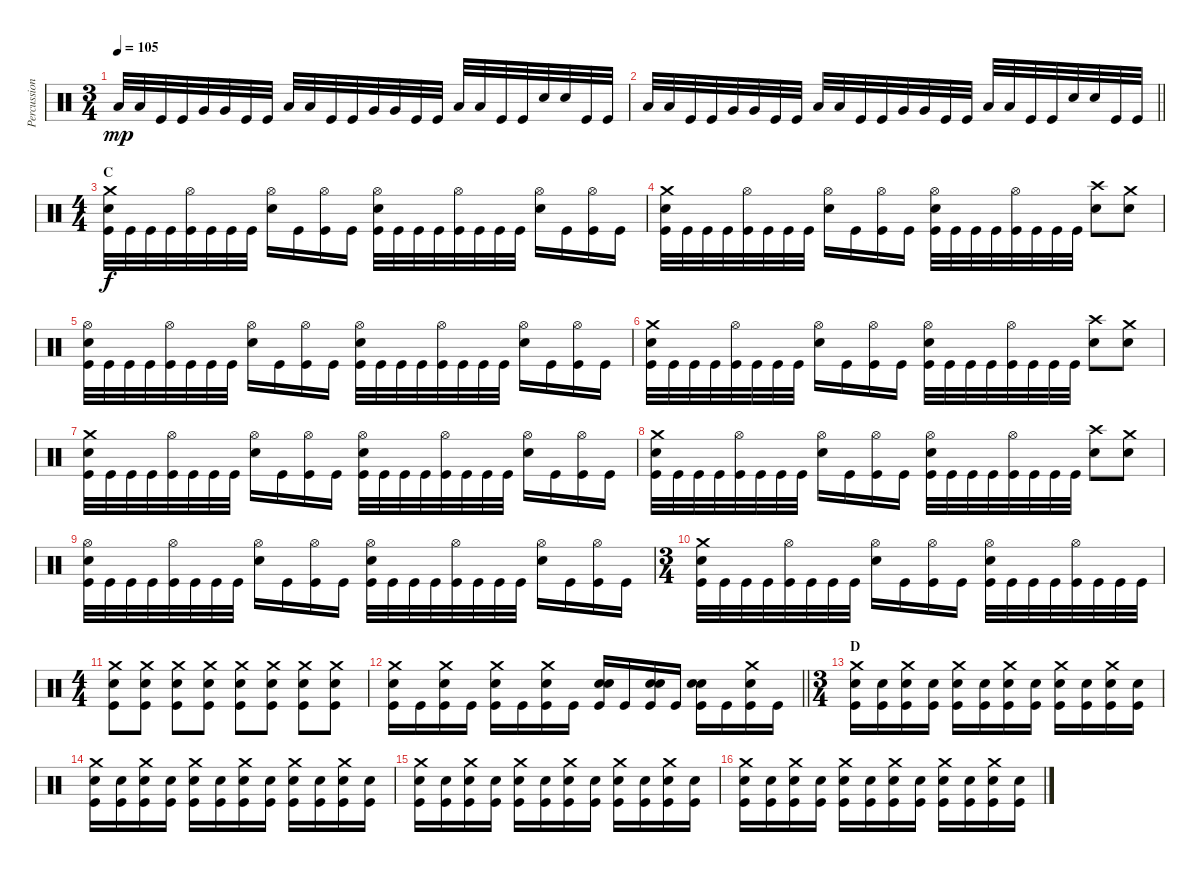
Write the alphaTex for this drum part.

\track ("Percussion" "Percussion") {instrument percussion}
\staff {score}
\articulation defaults
\ts (3 4)
\tempo 105
\clef neutral
\ks c "Low Tom (hit)".32{dy mp} "Low Tom (hit)".32 "Kick (hit)".32 "Kick (hit)".32 "Very Low Tom (hit)".32 "Very Low Tom (hit)".32 "Kick (hit)".32 "Kick (hit)".32 "Low Floor Tom (hit)".32 "Low Floor Tom (hit)".32 "Kick (hit)".32 "Kick (hit)".32 "Very Low Tom (hit)".32 "Very Low Tom (hit)".32 "Kick (hit)".32 "Kick (hit)".32 "Low Tom (hit)".32 "Low Tom (hit)".32 "Kick (hit)".32 "Kick (hit)".32 "Snare (hit) 2".32 "Snare (hit) 2".32 "Kick (hit)".32 "Kick (hit)".32
|
\barLineRight lightlight "Low Tom (hit)".32 "Low Tom (hit)".32 "Kick (hit)".32 "Kick (hit)".32 "Very Low Tom (hit)".32 "Very Low Tom (hit)".32 "Kick (hit)".32 "Kick (hit)".32 "Low Floor Tom (hit)".32 "Low Floor Tom (hit)".32 "Kick (hit)".32 "Kick (hit)".32 "Very Low Tom (hit)".32 "Very Low Tom (hit)".32 "Kick (hit)".32 "Kick (hit)".32 "Low Tom (hit)".32 "Low Tom (hit)".32 "Kick (hit)".32 "Kick (hit)".32 "Snare (hit) 2".32 "Snare (hit) 2".32 "Kick (hit)".32 "Kick (hit)".32
|
\ts (4 4)
\section ("" "C")
("Kick (hit)" "Snare (hit) 2" "Crash medium (hit)").32{dy f} "Kick (hit)".32 "Kick (hit)".32 "Kick (hit)".32 ("Kick (hit)" "Hi-Hat (open)").32 "Kick (hit)".32 "Kick (hit)".32 "Kick (hit)".32 ("Snare (hit) 2" "Hi-Hat (open)").16 "Kick (hit)".16 ("Kick (hit)" "Hi-Hat (open)").16 "Kick (hit)".16 ("Kick (hit)" "Snare (hit) 2" "Hi-Hat (open)").32 "Kick (hit)".32 "Kick (hit)".32 "Kick (hit)".32 ("Kick (hit)" "Hi-Hat (open)").32 "Kick (hit)".32 "Kick (hit)".32 "Kick (hit)".32 ("Snare (hit) 2" "Hi-Hat (open)").16 "Kick (hit)".16 ("Kick (hit)" "Hi-Hat (open)").16 "Kick (hit)".16 |
("Kick (hit)" "Snare (hit) 2" "Crash medium (hit)").32 "Kick (hit)".32 "Kick (hit)".32 "Kick (hit)".32 ("Kick (hit)" "Hi-Hat (open)").32 "Kick (hit)".32 "Kick (hit)".32 "Kick (hit)".32 ("Snare (hit) 2" "Hi-Hat (open)").16 "Kick (hit)".16 ("Kick (hit)" "Hi-Hat (open)").16 "Kick (hit)".16 ("Kick (hit)" "Snare (hit) 2" "Hi-Hat (open)").32 "Kick (hit)".32 "Kick (hit)".32 "Kick (hit)".32 ("Kick (hit)" "Hi-Hat (open)").32 "Kick (hit)".32 "Kick (hit)".32 "Kick (hit)".32 ("Snare (hit) 2" "Crash high (hit)").8 ("Snare (hit) 2" "Crash medium (hit)").8 |
("Kick (hit)" "Snare (hit) 2" "Hi-Hat (open)").32 "Kick (hit)".32 "Kick (hit)".32 "Kick (hit)".32 ("Kick (hit)" "Hi-Hat (open)").32 "Kick (hit)".32 "Kick (hit)".32 "Kick (hit)".32 ("Snare (hit) 2" "Hi-Hat (open)").16 "Kick (hit)".16 ("Kick (hit)" "Hi-Hat (open)").16 "Kick (hit)".16 ("Kick (hit)" "Snare (hit) 2" "Hi-Hat (open)").32 "Kick (hit)".32 "Kick (hit)".32 "Kick (hit)".32 ("Kick (hit)" "Hi-Hat (open)").32 "Kick (hit)".32 "Kick (hit)".32 "Kick (hit)".32 ("Snare (hit) 2" "Hi-Hat (open)").16 "Kick (hit)".16 ("Kick (hit)" "Hi-Hat (open)").16 "Kick (hit)".16 |
("Kick (hit)" "Snare (hit) 2" "Crash medium (hit)").32 "Kick (hit)".32 "Kick (hit)".32 "Kick (hit)".32 ("Kick (hit)" "Hi-Hat (open)").32 "Kick (hit)".32 "Kick (hit)".32 "Kick (hit)".32 ("Snare (hit) 2" "Hi-Hat (open)").16 "Kick (hit)".16 ("Kick (hit)" "Hi-Hat (open)").16 "Kick (hit)".16 ("Kick (hit)" "Snare (hit) 2" "Hi-Hat (open)").32 "Kick (hit)".32 "Kick (hit)".32 "Kick (hit)".32 ("Kick (hit)" "Hi-Hat (open)").32 "Kick (hit)".32 "Kick (hit)".32 "Kick (hit)".32 ("Snare (hit) 2" "Crash high (hit)").8 ("Snare (hit) 2" "Crash medium (hit)").8 |
("Kick (hit)" "Snare (hit) 2" "Crash medium (hit)").32 "Kick (hit)".32 "Kick (hit)".32 "Kick (hit)".32 ("Kick (hit)" "Hi-Hat (open)").32 "Kick (hit)".32 "Kick (hit)".32 "Kick (hit)".32 ("Snare (hit) 2" "Hi-Hat (open)").16 "Kick (hit)".16 ("Kick (hit)" "Hi-Hat (open)").16 "Kick (hit)".16 ("Kick (hit)" "Snare (hit) 2" "Hi-Hat (open)").32 "Kick (hit)".32 "Kick (hit)".32 "Kick (hit)".32 ("Kick (hit)" "Hi-Hat (open)").32 "Kick (hit)".32 "Kick (hit)".32 "Kick (hit)".32 ("Snare (hit) 2" "Hi-Hat (open)").16 "Kick (hit)".16 ("Kick (hit)" "Hi-Hat (open)").16 "Kick (hit)".16 |
("Kick (hit)" "Snare (hit) 2" "Crash medium (hit)").32 "Kick (hit)".32 "Kick (hit)".32 "Kick (hit)".32 ("Kick (hit)" "Hi-Hat (open)").32 "Kick (hit)".32 "Kick (hit)".32 "Kick (hit)".32 ("Snare (hit) 2" "Hi-Hat (open)").16 "Kick (hit)".16 ("Kick (hit)" "Hi-Hat (open)").16 "Kick (hit)".16 ("Kick (hit)" "Snare (hit) 2" "Hi-Hat (open)").32 "Kick (hit)".32 "Kick (hit)".32 "Kick (hit)".32 ("Kick (hit)" "Hi-Hat (open)").32 "Kick (hit)".32 "Kick (hit)".32 "Kick (hit)".32 ("Snare (hit) 2" "Crash high (hit)").8 ("Snare (hit) 2" "Crash medium (hit)").8 |
("Kick (hit)" "Snare (hit) 2" "Hi-Hat (open)").32 "Kick (hit)".32 "Kick (hit)".32 "Kick (hit)".32 ("Kick (hit)" "Hi-Hat (open)").32 "Kick (hit)".32 "Kick (hit)".32 "Kick (hit)".32 ("Snare (hit) 2" "Hi-Hat (open)").16 "Kick (hit)".16 ("Kick (hit)" "Hi-Hat (open)").16 "Kick (hit)".16 ("Kick (hit)" "Snare (hit) 2" "Hi-Hat (open)").32 "Kick (hit)".32 "Kick (hit)".32 "Kick (hit)".32 ("Kick (hit)" "Hi-Hat (open)").32 "Kick (hit)".32 "Kick (hit)".32 "Kick (hit)".32 ("Snare (hit) 2" "Hi-Hat (open)").16 "Kick (hit)".16 ("Kick (hit)" "Hi-Hat (open)").16 "Kick (hit)".16 |
\ts (3 4)
("Kick (hit)" "Snare (hit) 2" "Crash medium (hit)").32 "Kick (hit)".32 "Kick (hit)".32 "Kick (hit)".32 ("Kick (hit)" "Hi-Hat (open)").32 "Kick (hit)".32 "Kick (hit)".32 "Kick (hit)".32 ("Snare (hit) 2" "Hi-Hat (open)").16 "Kick (hit)".16 ("Kick (hit)" "Hi-Hat (open)").16 "Kick (hit)".16 ("Kick (hit)" "Snare (hit) 2" "Hi-Hat (open)").32 "Kick (hit)".32 "Kick (hit)".32 "Kick (hit)".32 ("Kick (hit)" "Hi-Hat (open)").32 "Kick (hit)".32 "Kick (hit)".32 "Kick (hit)".32 |
\ts (4 4)
("Kick (hit)" "Snare (hit) 2" "Crash medium (hit)").8 ("Kick (hit)" "Snare (hit) 2" "Crash medium (hit)").8 ("Kick (hit)" "Snare (hit) 2" "Crash medium (hit)").8 ("Kick (hit)" "Snare (hit) 2" "Crash medium (hit)").8 ("Kick (hit)" "Snare (hit) 2" "Crash medium (hit)").8 ("Kick (hit)" "Snare (hit) 2" "Crash medium (hit)").8 ("Kick (hit)" "Snare (hit) 2" "Crash medium (hit)").8 ("Kick (hit)" "Snare (hit) 2" "Crash medium (hit)").8 |
\barLineRight lightlight
("Kick (hit)" "Snare (hit) 2" "Crash medium (hit)").16 "Kick (hit)".16 ("Kick (hit)" "Snare (hit) 2" "Crash medium (hit)").16 "Kick (hit)".16 ("Kick (hit)" "Snare (hit) 2" "Crash medium (hit)").16 "Kick (hit)".16 ("Kick (hit)" "Snare (hit) 2" "Crash medium (hit)").16 "Kick (hit)".16 ("Kick (hit)" "Snare (hit) 2" "Snare (hit) 2").16 "Kick (hit)".16 ("Kick (hit)" "Snare (hit) 2" "Snare (hit) 2").16 "Kick (hit)".16 ("Kick (hit)" "Snare (hit) 2" "Snare (hit) 2").16 "Kick (hit)".16 ("Kick (hit)" "Snare (hit) 2" "Crash medium (hit)").16 "Kick (hit)".16 |
\ts (3 4)
\section ("" "D")
("Kick (hit)" "Crash medium (hit)" "Snare (hit) 2").16 ("Kick (hit)" "Snare (hit) 2").16 ("Kick (hit)" "Crash medium (hit)" "Snare (hit) 2").16 ("Kick (hit)" "Snare (hit) 2").16 ("Kick (hit)" "Crash medium (hit)" "Snare (hit) 2").16 ("Kick (hit)" "Snare (hit) 2").16 ("Kick (hit)" "Crash medium (hit)" "Snare (hit) 2").16 ("Kick (hit)" "Snare (hit) 2").16 ("Kick (hit)" "Crash medium (hit)" "Snare (hit) 2").16 ("Kick (hit)" "Snare (hit) 2").16 ("Kick (hit)" "Crash medium (hit)" "Snare (hit) 2").16 ("Kick (hit)" "Snare (hit) 2").16 |
("Kick (hit)" "Crash medium (hit)" "Snare (hit) 2").16 ("Kick (hit)" "Snare (hit) 2").16 ("Kick (hit)" "Crash medium (hit)" "Snare (hit) 2").16 ("Kick (hit)" "Snare (hit) 2").16 ("Kick (hit)" "Crash medium (hit)" "Snare (hit) 2").16 ("Kick (hit)" "Snare (hit) 2").16 ("Kick (hit)" "Crash medium (hit)" "Snare (hit) 2").16 ("Kick (hit)" "Snare (hit) 2").16 ("Kick (hit)" "Crash medium (hit)" "Snare (hit) 2").16 ("Kick (hit)" "Snare (hit) 2").16 ("Kick (hit)" "Crash medium (hit)" "Snare (hit) 2").16 ("Kick (hit)" "Snare (hit) 2").16 |
("Kick (hit)" "Crash medium (hit)" "Snare (hit) 2").16 ("Kick (hit)" "Snare (hit) 2").16 ("Kick (hit)" "Crash medium (hit)" "Snare (hit) 2").16 ("Kick (hit)" "Snare (hit) 2").16 ("Kick (hit)" "Crash medium (hit)" "Snare (hit) 2").16 ("Kick (hit)" "Snare (hit) 2").16 ("Kick (hit)" "Crash medium (hit)" "Snare (hit) 2").16 ("Kick (hit)" "Snare (hit) 2").16 ("Kick (hit)" "Crash medium (hit)" "Snare (hit) 2").16 ("Kick (hit)" "Snare (hit) 2").16 ("Kick (hit)" "Crash medium (hit)" "Snare (hit) 2").16 ("Kick (hit)" "Snare (hit) 2").16 |
("Kick (hit)" "Crash medium (hit)" "Snare (hit) 2").16 ("Kick (hit)" "Snare (hit) 2").16 ("Kick (hit)" "Crash medium (hit)" "Snare (hit) 2").16 ("Kick (hit)" "Snare (hit) 2").16 ("Kick (hit)" "Crash medium (hit)" "Snare (hit) 2").16 ("Kick (hit)" "Snare (hit) 2").16 ("Kick (hit)" "Crash medium (hit)" "Snare (hit) 2").16 ("Kick (hit)" "Snare (hit) 2").16 ("Kick (hit)" "Crash medium (hit)" "Snare (hit) 2").16 ("Kick (hit)" "Snare (hit) 2").16 ("Kick (hit)" "Crash medium (hit)" "Snare (hit) 2").16 ("Kick (hit)" "Snare (hit) 2").16
